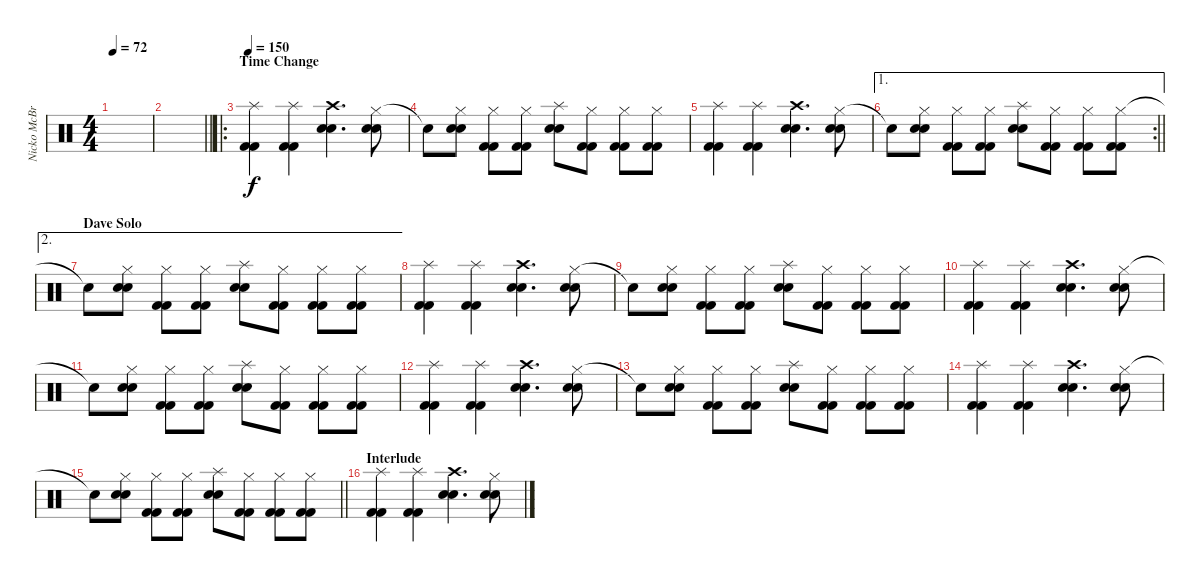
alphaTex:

\track ("Nicko McBrain" "Nicko McBr") {instrument percussion}
\staff {score}
\articulation defaults
\ts (4 4)
\tempo 72
\clef neutral
\ks c
|
\barLineRight lightlight
|
\ro
\section ("" "Time Change")
\tempo 146
\tempo 150
("Splash (hit)" "Kick (hit) 2" "Kick (hit) 2").4 ("Splash (hit)" "Kick (hit) 2" "Kick (hit) 2").4 ("Crash high (hit)" "Snare (hit) 2" "Snare (hit) 2").4{d} ("Hi-Hat (closed)" "Snare (hit) 2" "Snare (hit) 2").8 |
"Snare (hit) 2"{t}.8 ("Hi-Hat (closed)" "Snare (hit) 2" "Snare (hit) 2").8 ("Hi-Hat (closed)" "Kick (hit) 2" "Kick (hit) 2").8 ("Hi-Hat (closed)" "Kick (hit) 2" "Kick (hit) 2").8 ("Splash (hit)" "Snare (hit) 2" "Snare (hit) 2").8 ("Hi-Hat (closed)" "Kick (hit) 2" "Kick (hit) 2").8 ("Hi-Hat (closed)" "Kick (hit) 2" "Kick (hit) 2").8 ("Hi-Hat (closed)" "Kick (hit) 2" "Kick (hit) 2").8 |
("Splash (hit)" "Kick (hit) 2" "Kick (hit) 2").4 ("Splash (hit)" "Kick (hit) 2" "Kick (hit) 2").4 ("Crash high (hit)" "Snare (hit) 2" "Snare (hit) 2").4{d} ("Hi-Hat (closed)" "Snare (hit) 2" "Snare (hit) 2").8 |
\ae 1
\rc 2
\barLineRight lightlight "Snare (hit) 2"{t}.8
("Hi-Hat (closed)" "Snare (hit) 2" "Snare (hit) 2").8 ("Hi-Hat (closed)" "Kick (hit) 2" "Kick (hit) 2").8 ("Hi-Hat (closed)" "Kick (hit) 2" "Kick (hit) 2").8 ("Splash (hit)" "Snare (hit) 2" "Snare (hit) 2").8 ("Hi-Hat (closed)" "Kick (hit) 2" "Kick (hit) 2").8 ("Hi-Hat (closed)" "Kick (hit) 2" "Kick (hit) 2").8 ("Hi-Hat (closed)" "Kick (hit) 2" "Kick (hit) 2").8 |
\ae 2
\section ("" "Dave Solo")
"Snare (hit) 2"{t}.8 ("Hi-Hat (closed)" "Snare (hit) 2" "Snare (hit) 2").8 ("Hi-Hat (closed)" "Kick (hit) 2" "Kick (hit) 2").8 ("Hi-Hat (closed)" "Kick (hit) 2" "Kick (hit) 2").8 ("Splash (hit)" "Snare (hit) 2" "Snare (hit) 2").8 ("Hi-Hat (closed)" "Kick (hit) 2" "Kick (hit) 2").8 ("Hi-Hat (closed)" "Kick (hit) 2" "Kick (hit) 2").8 ("Hi-Hat (closed)" "Kick (hit) 2" "Kick (hit) 2").8 |
("Splash (hit)" "Kick (hit) 2" "Kick (hit) 2").4 ("Splash (hit)" "Kick (hit) 2" "Kick (hit) 2").4 ("Crash high (hit)" "Snare (hit) 2" "Snare (hit) 2").4{d} ("Hi-Hat (closed)" "Snare (hit) 2" "Snare (hit) 2").8 |
"Snare (hit) 2"{t}.8 ("Hi-Hat (closed)" "Snare (hit) 2" "Snare (hit) 2").8 ("Hi-Hat (closed)" "Kick (hit) 2" "Kick (hit) 2").8 ("Hi-Hat (closed)" "Kick (hit) 2" "Kick (hit) 2").8 ("Splash (hit)" "Snare (hit) 2" "Snare (hit) 2").8 ("Hi-Hat (closed)" "Kick (hit) 2" "Kick (hit) 2").8 ("Hi-Hat (closed)" "Kick (hit) 2" "Kick (hit) 2").8 ("Hi-Hat (closed)" "Kick (hit) 2" "Kick (hit) 2").8 |
("Splash (hit)" "Kick (hit) 2" "Kick (hit) 2").4 ("Splash (hit)" "Kick (hit) 2" "Kick (hit) 2").4 ("Crash high (hit)" "Snare (hit) 2" "Snare (hit) 2").4{d} ("Hi-Hat (closed)" "Snare (hit) 2" "Snare (hit) 2").8 |
"Snare (hit) 2"{t}.8 ("Hi-Hat (closed)" "Snare (hit) 2" "Snare (hit) 2").8 ("Hi-Hat (closed)" "Kick (hit) 2" "Kick (hit) 2").8 ("Hi-Hat (closed)" "Kick (hit) 2" "Kick (hit) 2").8 ("Splash (hit)" "Snare (hit) 2" "Snare (hit) 2").8 ("Hi-Hat (closed)" "Kick (hit) 2" "Kick (hit) 2").8 ("Hi-Hat (closed)" "Kick (hit) 2" "Kick (hit) 2").8 ("Hi-Hat (closed)" "Kick (hit) 2" "Kick (hit) 2").8 |
("Splash (hit)" "Kick (hit) 2" "Kick (hit) 2").4 ("Splash (hit)" "Kick (hit) 2" "Kick (hit) 2").4 ("Crash high (hit)" "Snare (hit) 2" "Snare (hit) 2").4{d} ("Hi-Hat (closed)" "Snare (hit) 2" "Snare (hit) 2").8 |
"Snare (hit) 2"{t}.8 ("Hi-Hat (closed)" "Snare (hit) 2" "Snare (hit) 2").8 ("Hi-Hat (closed)" "Kick (hit) 2" "Kick (hit) 2").8 ("Hi-Hat (closed)" "Kick (hit) 2" "Kick (hit) 2").8 ("Splash (hit)" "Snare (hit) 2" "Snare (hit) 2").8 ("Hi-Hat (closed)" "Kick (hit) 2" "Kick (hit) 2").8 ("Hi-Hat (closed)" "Kick (hit) 2" "Kick (hit) 2").8 ("Hi-Hat (closed)" "Kick (hit) 2" "Kick (hit) 2").8 |
("Splash (hit)" "Kick (hit) 2" "Kick (hit) 2").4 ("Splash (hit)" "Kick (hit) 2" "Kick (hit) 2").4 ("Crash high (hit)" "Snare (hit) 2" "Snare (hit) 2").4{d} ("Hi-Hat (closed)" "Snare (hit) 2" "Snare (hit) 2").8 |
\barLineRight lightlight "Snare (hit) 2"{t}.8
("Hi-Hat (closed)" "Snare (hit) 2" "Snare (hit) 2").8 ("Hi-Hat (closed)" "Kick (hit) 2" "Kick (hit) 2").8 ("Hi-Hat (closed)" "Kick (hit) 2" "Kick (hit) 2").8 ("Splash (hit)" "Snare (hit) 2" "Snare (hit) 2").8 ("Hi-Hat (closed)" "Kick (hit) 2" "Kick (hit) 2").8 ("Hi-Hat (closed)" "Kick (hit) 2" "Kick (hit) 2").8 ("Hi-Hat (closed)" "Kick (hit) 2" "Kick (hit) 2").8 |
\section ("" "Interlude")
("Splash (hit)" "Kick (hit) 2" "Kick (hit) 2").4 ("Splash (hit)" "Kick (hit) 2" "Kick (hit) 2").4 ("Crash high (hit)" "Snare (hit) 2" "Snare (hit) 2").4{d} ("Hi-Hat (closed)" "Snare (hit) 2" "Snare (hit) 2").8
